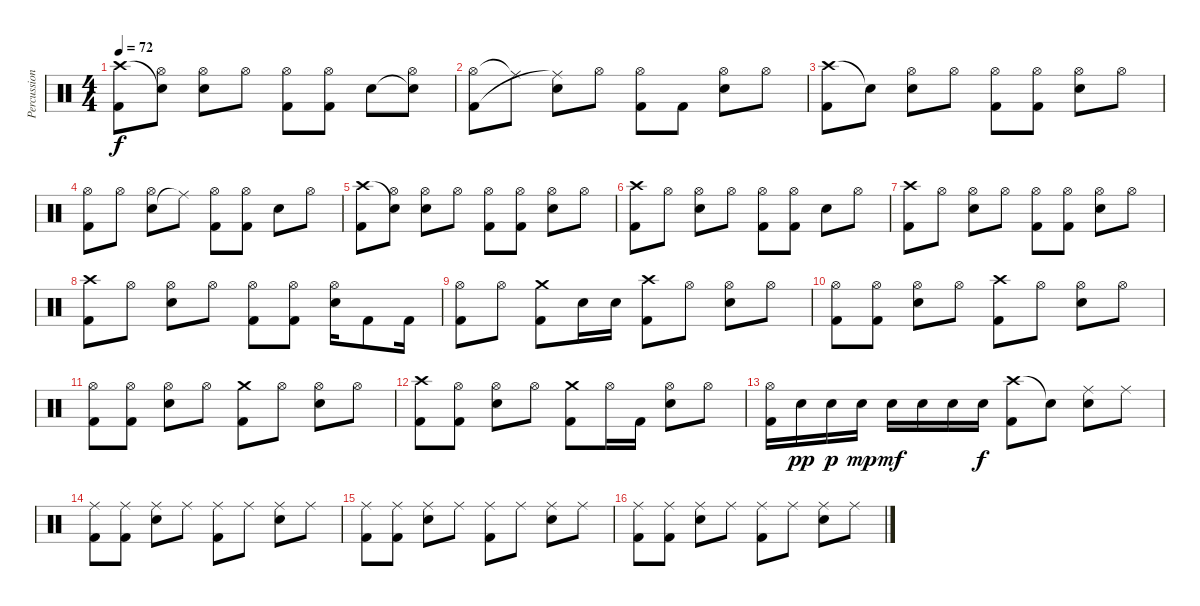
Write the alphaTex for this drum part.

\track ("Percussioni" "Percussion") {instrument percussion}
\staff {score}
\articulation defaults
\ts (4 4)
\tempo 72
\clef neutral
\ks c
("Crash high (hit)" "Kick (hit) 2").8{dy f} ("Snare (hit)"{t} "Hi-Hat (open)").8 ("Electric Snare (hit)" "Hi-Hat (open)").8 "Hi-Hat (open)".8 ("Hi-Hat (open)" "Kick (hit) 2").8 ("Hi-Hat (open)" "Kick (hit) 2").8 "Electric Snare (hit)".8 ("Snare (hit)"{t} "Hi-Hat (open)").8 |
("Hi-Hat (open)" "Kick (hit) 2").8 "Ride (middle)"{t}.8 ("Electric Snare (hit)" "Ride (middle)"{t}).8 "Hi-Hat (open)".8 ("Hi-Hat (open)" "Kick (hit) 2").8 "Kick (hit) 2".8 ("Electric Snare (hit)" "Hi-Hat (open)").8 "Hi-Hat (open)".8 |
("Crash high (hit)" "Kick (hit) 2").8 "Snare (hit)"{t}.8 ("Electric Snare (hit)" "Hi-Hat (open)").8 "Hi-Hat (open)".8 ("Hi-Hat (open)" "Kick (hit) 2").8 ("Hi-Hat (open)" "Kick (hit) 2").8 ("Electric Snare (hit)" "Hi-Hat (open)").8 "Hi-Hat (open)".8 |
("Hi-Hat (open)" "Kick (hit) 2").8 "Hi-Hat (open)".8 ("Electric Snare (hit)" "Hi-Hat (open)").8 "Ride (middle)"{t}.8 ("Hi-Hat (open)" "Kick (hit) 2").8 ("Hi-Hat (open)" "Kick (hit) 2").8 "Electric Snare (hit)".8 "Hi-Hat (open)".8 |
("Crash high (hit)" "Kick (hit) 2").8 ("Snare (hit)"{t} "Hi-Hat (open)").8 ("Electric Snare (hit)" "Hi-Hat (open)").8 "Hi-Hat (open)".8 ("Hi-Hat (open)" "Kick (hit) 2").8 ("Hi-Hat (open)" "Kick (hit) 2").8 ("Electric Snare (hit)" "Hi-Hat (open)").8 "Hi-Hat (open)".8 |
("Crash high (hit)" "Kick (hit) 2").8 "Hi-Hat (open)".8 ("Electric Snare (hit)" "Hi-Hat (open)").8 "Hi-Hat (open)".8 ("Hi-Hat (open)" "Kick (hit) 2").8 ("Hi-Hat (open)" "Kick (hit) 2").8 "Electric Snare (hit)".8 "Hi-Hat (open)".8 |
("Crash high (hit)" "Kick (hit) 2").8 "Hi-Hat (open)".8 ("Electric Snare (hit)" "Hi-Hat (open)").8 "Hi-Hat (open)".8 ("Hi-Hat (open)" "Kick (hit) 2").8 ("Hi-Hat (open)" "Kick (hit) 2").8 ("Electric Snare (hit)" "Hi-Hat (open)").8 "Hi-Hat (open)".8 |
("Crash high (hit)" "Kick (hit) 2").8 "Hi-Hat (open)".8 ("Electric Snare (hit)" "Hi-Hat (open)").8 "Hi-Hat (open)".8 ("Hi-Hat (open)" "Kick (hit) 2").8 ("Hi-Hat (open)" "Kick (hit) 2").8 ("Electric Snare (hit)" "Hi-Hat (open)").16 "Kick (hit) 2".8 "Kick (hit) 2".16 |
("Hi-Hat (open)" "Kick (hit) 2").8 "Hi-Hat (open)".8 ("Crash medium (hit)" "Kick (hit) 2").8 "Electric Snare (hit)".16 "Electric Snare (hit)".16 ("Crash high (hit)" "Kick (hit) 2").8 "Hi-Hat (open)".8 ("Electric Snare (hit)" "Hi-Hat (open)").8 "Hi-Hat (open)".8 |
("Hi-Hat (open)" "Kick (hit) 2").8 ("Hi-Hat (open)" "Kick (hit) 2").8 ("Electric Snare (hit)" "Hi-Hat (open)").8 "Hi-Hat (open)".8 ("Crash high (hit)" "Kick (hit) 2").8 "Hi-Hat (open)".8 ("Electric Snare (hit)" "Hi-Hat (open)").8 "Hi-Hat (open)".8 |
("Hi-Hat (open)" "Kick (hit) 2").8 ("Hi-Hat (open)" "Kick (hit) 2").8 ("Electric Snare (hit)" "Hi-Hat (open)").8 "Hi-Hat (open)".8 ("Crash medium (hit)" "Kick (hit) 2").8 "Hi-Hat (open)".8 ("Electric Snare (hit)" "Hi-Hat (open)").8 "Hi-Hat (open)".8 |
("Crash high (hit)" "Kick (hit) 2").8 ("Hi-Hat (open)" "Kick (hit) 2").8 ("Electric Snare (hit)" "Hi-Hat (open)").8 "Hi-Hat (open)".8 ("Crash medium (hit)" "Kick (hit) 2").8 "Hi-Hat (open)".16 "Kick (hit) 2".16 ("Electric Snare (hit)" "Hi-Hat (open)").8 "Hi-Hat (open)".8 |
("Hi-Hat (open)" "Kick (hit) 2").16 "Electric Snare (hit)".16{dy pp} "Electric Snare (hit)".16{dy p} "Electric Snare (hit)".16{dy mp} "Electric Snare (hit)".16{dy mf} "Electric Snare (hit)".16 "Electric Snare (hit)".16 "Electric Snare (hit)".16{dy f} ("Crash high (hit)" "Kick (hit) 2").8 "Snare (hit)"{t}.8 ("Electric Snare (hit)" "Ride (middle)").8 "Ride (middle)".8 |
("Ride (middle)" "Kick (hit) 2").8 ("Ride (middle)" "Kick (hit) 2").8 ("Electric Snare (hit)" "Ride (middle)").8 "Ride (middle)".8 ("Ride (middle)" "Kick (hit) 2").8 "Ride (middle)".8 ("Electric Snare (hit)" "Ride (middle)").8 "Ride (middle)".8 |
("Ride (middle)" "Kick (hit) 2").8 ("Ride (middle)" "Kick (hit) 2").8 ("Electric Snare (hit)" "Ride (middle)").8 "Ride (middle)".8 ("Ride (middle)" "Kick (hit) 2").8 "Ride (middle)".8 ("Electric Snare (hit)" "Ride (middle)").8 "Ride (middle)".8 |
("Ride (middle)" "Kick (hit) 2").8 ("Ride (middle)" "Kick (hit) 2").8 ("Electric Snare (hit)" "Ride (middle)").8 "Ride (middle)".8 ("Ride (middle)" "Kick (hit) 2").8 "Ride (middle)".8 ("Electric Snare (hit)" "Ride (middle)").8 "Ride (middle)".8
